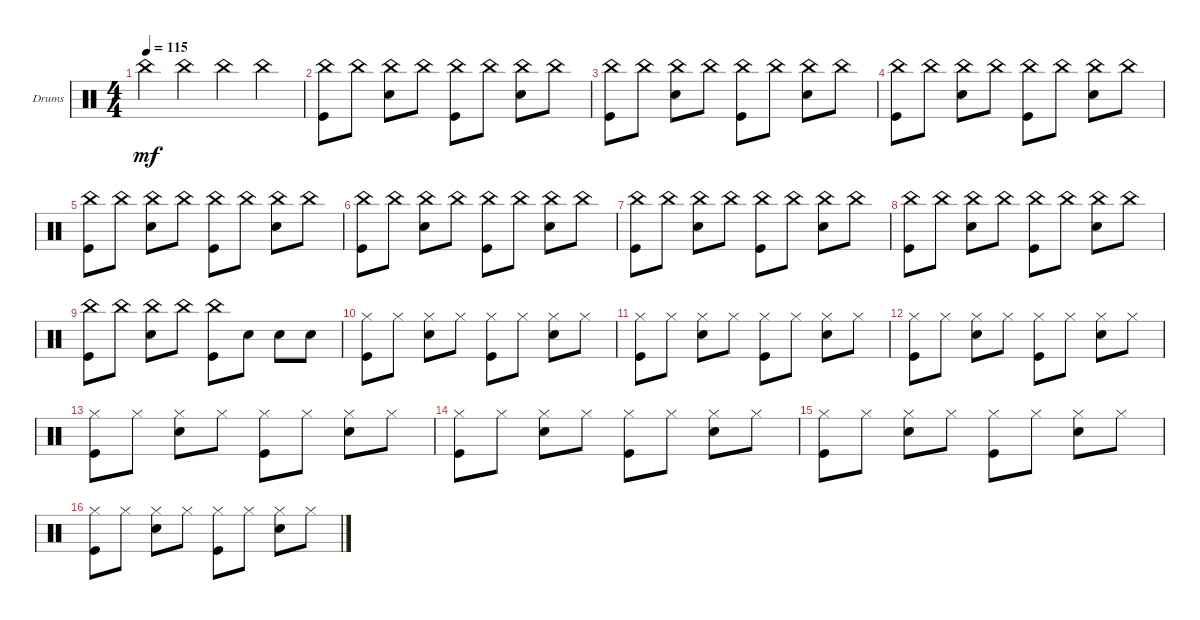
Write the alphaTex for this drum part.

\defaultSystemsLayout 4
\bracketExtendMode groupsimilarinstruments
\firstSystemTrackNameOrientation horizontal
\otherSystemsTrackNameOrientation horizontal
\track ("Drumkit" "Drums") {instrument percussion}
\staff {score}
\articulation defaults
\ts (4 4)
\tempo 115
\clef neutral
\ks c "China (hit)".4{dy mf} "China (hit)".4 "China (hit)".4 "China (hit)".4
|
("China (hit)" "Kick (hit)").8 "China (hit)".8 ("China (hit)" "Snare (hit) 2").8 "China (hit)".8 ("China (hit)" "Kick (hit)").8 "China (hit)".8 ("China (hit)" "Snare (hit) 2").8 "China (hit)".8 |
("China (hit)" "Kick (hit)").8 "China (hit)".8 ("China (hit)" "Snare (hit) 2").8 "China (hit)".8 ("China (hit)" "Kick (hit)").8 "China (hit)".8 ("China (hit)" "Snare (hit) 2").8 "China (hit)".8 |
("China (hit)" "Kick (hit)").8 "China (hit)".8 ("China (hit)" "Snare (hit) 2").8 "China (hit)".8 ("China (hit)" "Kick (hit)").8 "China (hit)".8 ("China (hit)" "Snare (hit) 2").8 "China (hit)".8 |
("China (hit)" "Kick (hit)").8 "China (hit)".8 ("China (hit)" "Snare (hit) 2").8 "China (hit)".8 ("China (hit)" "Kick (hit)").8 "China (hit)".8 ("China (hit)" "Snare (hit) 2").8 "China (hit)".8 |
("China (hit)" "Kick (hit)").8 "China (hit)".8 ("China (hit)" "Snare (hit) 2").8 "China (hit)".8 ("China (hit)" "Kick (hit)").8 "China (hit)".8 ("China (hit)" "Snare (hit) 2").8 "China (hit)".8 |
("China (hit)" "Kick (hit)").8 "China (hit)".8 ("China (hit)" "Snare (hit) 2").8 "China (hit)".8 ("China (hit)" "Kick (hit)").8 "China (hit)".8 ("China (hit)" "Snare (hit) 2").8 "China (hit)".8 |
("China (hit)" "Kick (hit)").8 "China (hit)".8 ("China (hit)" "Snare (hit) 2").8 "China (hit)".8 ("China (hit)" "Kick (hit)").8 "China (hit)".8 ("China (hit)" "Snare (hit) 2").8 "China (hit)".8 |
("China (hit)" "Kick (hit)").8 "China (hit)".8 ("China (hit)" "Snare (hit) 2").8 "China (hit)".8 ("China (hit)" "Kick (hit)").8 "Snare (hit) 2".8 "Snare (hit) 2".8 "Snare (hit) 2".8 |
("Kick (hit)" "Hi-Hat (closed)").8 "Hi-Hat (closed)".8 ("Snare (hit) 2" "Hi-Hat (closed)").8 "Hi-Hat (closed)".8 ("Kick (hit)" "Hi-Hat (closed)").8 "Hi-Hat (closed)".8 ("Snare (hit) 2" "Hi-Hat (closed)").8 "Hi-Hat (closed)".8 |
("Kick (hit)" "Hi-Hat (closed)").8 "Hi-Hat (closed)".8 ("Snare (hit) 2" "Hi-Hat (closed)").8 "Hi-Hat (closed)".8 ("Kick (hit)" "Hi-Hat (closed)").8 "Hi-Hat (closed)".8 ("Snare (hit) 2" "Hi-Hat (closed)").8 "Hi-Hat (closed)".8 |
("Kick (hit)" "Hi-Hat (closed)").8 "Hi-Hat (closed)".8 ("Snare (hit) 2" "Hi-Hat (closed)").8 "Hi-Hat (closed)".8 ("Kick (hit)" "Hi-Hat (closed)").8 "Hi-Hat (closed)".8 ("Snare (hit) 2" "Hi-Hat (closed)").8 "Hi-Hat (closed)".8 |
("Kick (hit)" "Hi-Hat (closed)").8 "Hi-Hat (closed)".8 ("Snare (hit) 2" "Hi-Hat (closed)").8 "Hi-Hat (closed)".8 ("Kick (hit)" "Hi-Hat (closed)").8 "Hi-Hat (closed)".8 ("Snare (hit) 2" "Hi-Hat (closed)").8 "Hi-Hat (closed)".8 |
("Kick (hit)" "Hi-Hat (closed)").8 "Hi-Hat (closed)".8 ("Snare (hit) 2" "Hi-Hat (closed)").8 "Hi-Hat (closed)".8 ("Kick (hit)" "Hi-Hat (closed)").8 "Hi-Hat (closed)".8 ("Snare (hit) 2" "Hi-Hat (closed)").8 "Hi-Hat (closed)".8 |
("Kick (hit)" "Hi-Hat (closed)").8 "Hi-Hat (closed)".8 ("Snare (hit) 2" "Hi-Hat (closed)").8 "Hi-Hat (closed)".8 ("Kick (hit)" "Hi-Hat (closed)").8 "Hi-Hat (closed)".8 ("Snare (hit) 2" "Hi-Hat (closed)").8 "Hi-Hat (closed)".8 |
("Kick (hit)" "Hi-Hat (closed)").8 "Hi-Hat (closed)".8 ("Snare (hit) 2" "Hi-Hat (closed)").8 "Hi-Hat (closed)".8 ("Kick (hit)" "Hi-Hat (closed)").8 "Hi-Hat (closed)".8 ("Snare (hit) 2" "Hi-Hat (closed)").8 "Hi-Hat (closed)".8
